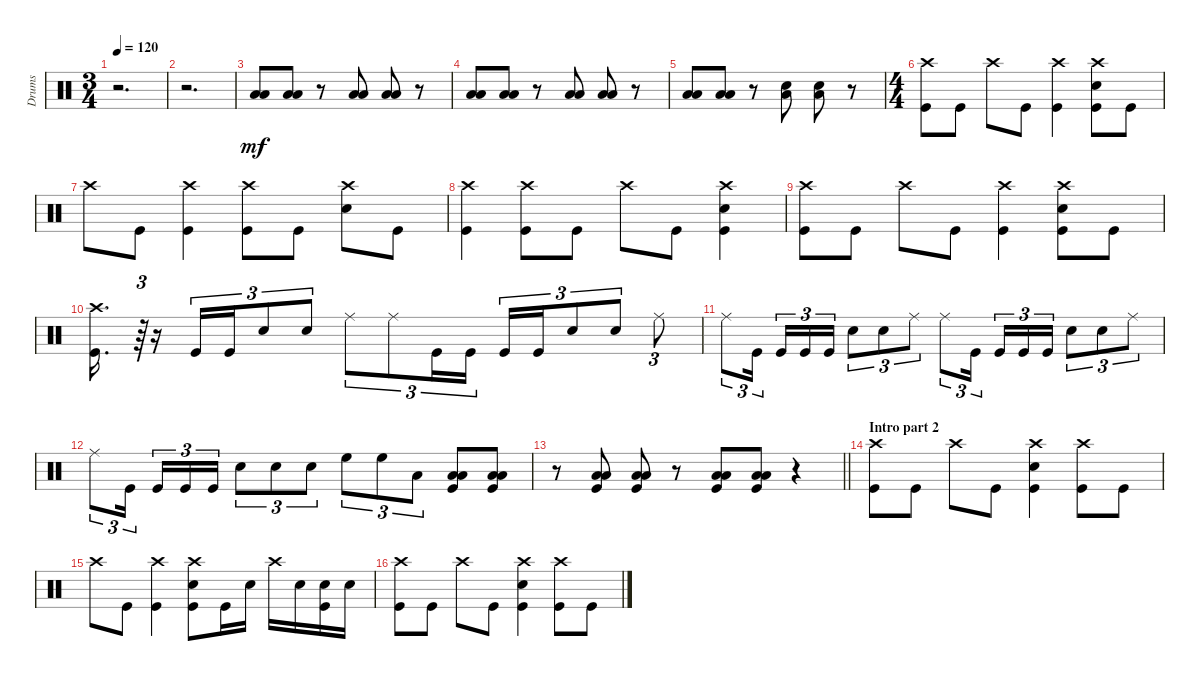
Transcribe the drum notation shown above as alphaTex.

\track ("Drums" "Drums") {instrument percussion}
\staff {score}
\articulation defaults
\ts (3 4)
\tempo 120
\clef neutral
\ks c
r.2{d dy mf} |
r.2{d} |
("Low Tom (hit)" "Low Floor Tom (hit)").8 ("Low Tom (hit)" "Low Floor Tom (hit)").8 r.8 ("Low Tom (hit)" "Low Floor Tom (hit)").8 ("Low Tom (hit)" "Low Floor Tom (hit)").8 r.8 |
("Low Tom (hit)" "Low Floor Tom (hit)").8 ("Low Tom (hit)" "Low Floor Tom (hit)").8 r.8 ("Low Tom (hit)" "Low Floor Tom (hit)").8 ("Low Tom (hit)" "Low Floor Tom (hit)").8 r.8 |
("Low Tom (hit)" "Low Floor Tom (hit)").8 ("Low Tom (hit)" "Low Floor Tom (hit)").8 r.8 ("Low Floor Tom (hit)" "Snare (hit) 2").8 ("Low Floor Tom (hit)" "Snare (hit) 2").8 r.8 |
\ts (4 4)
("Kick (hit)" "Crash high (hit)").8 "Kick (hit)".8 "Crash high (hit)".8 "Kick (hit)".8 ("Crash high (hit)" "Kick (hit)").4 ("Kick (hit)" "Snare (hit) 2" "Crash high (hit)").8 "Kick (hit)".8 |
"Crash high (hit)".8 "Kick (hit)".8 ("Crash high (hit)" "Kick (hit)").4 ("Crash high (hit)" "Kick (hit)").8 "Kick (hit)".8 ("Snare (hit) 2" "Crash high (hit)").8 "Kick (hit)".8 |
("Crash high (hit)" "Kick (hit)").4 ("Crash high (hit)" "Kick (hit)").8 "Kick (hit)".8 "Crash high (hit)".8 "Kick (hit)".8 ("Snare (hit) 2" "Crash high (hit)" "Kick (hit)").4 |
("Crash high (hit)" "Kick (hit)").8 "Kick (hit)".8 "Crash high (hit)".8 "Kick (hit)".8 ("Crash high (hit)" "Kick (hit)").4 ("Snare (hit) 2" "Crash high (hit)" "Kick (hit)").8 "Kick (hit)".8 |
("Crash high (hit)" "Kick (hit)").16{d} r.64{tu (3 2)} r.16 "Kick (hit)".16{tu (3 2)} "Kick (hit)".16{tu (3 2)} "Snare (hit) 2".8{tu (3 2)} "Snare (hit) 2".8{tu (3 2)} "Ride (middle)".8{tu (3 2)} "Ride (middle)".8{tu (3 2)} "Kick (hit)".16{tu (3 2)} "Kick (hit)".16{tu (3 2) beam splitsecondary} "Kick (hit)".16{tu (3 2)} "Kick (hit)".16{tu (3 2)} "Snare (hit) 2".8{tu (3 2)} "Snare (hit) 2".8{tu (3 2)} "Ride (middle)".8{tu (3 2)} |
"Ride (middle)".8{tu (3 2)} "Kick (hit)".16{tu (3 2) beam splitsecondary} "Kick (hit)".16{tu (3 2)} "Kick (hit)".16{tu (3 2)} "Kick (hit)".16{tu (3 2)} "Snare (hit) 2".8{tu (3 2)} "Snare (hit) 2".8{tu (3 2)} "Ride (middle)".8{tu (3 2)} "Ride (middle)".8{tu (3 2)} "Kick (hit)".16{tu (3 2) beam splitsecondary} "Kick (hit)".16{tu (3 2)} "Kick (hit)".16{tu (3 2)} "Kick (hit)".16{tu (3 2)} "Snare (hit) 2".8{tu (3 2)} "Snare (hit) 2".8{tu (3 2)} "Ride (middle)".8{tu (3 2)} |
"Ride (middle)".8{tu (3 2)} "Kick (hit)".16{tu (3 2) beam splitsecondary} "Kick (hit)".16{tu (3 2)} "Kick (hit)".16{tu (3 2)} "Kick (hit)".16{tu (3 2)} "Snare (hit) 2".8{tu (3 2)} "Snare (hit) 2".8{tu (3 2)} "Snare (hit) 2".8{tu (3 2)} "High Floor Tom (hit)".8{tu (3 2)} "High Floor Tom (hit)".8{tu (3 2)} "Low Tom (hit)".8{tu (3 2)} ("Kick (hit)" "Low Floor Tom (hit)" "Low Tom (hit)").8 ("Kick (hit)" "Low Floor Tom (hit)" "Low Tom (hit)").8 |
\barLineRight lightlight
r.8 ("Low Floor Tom (hit)" "Low Tom (hit)" "Kick (hit)").8 ("Low Floor Tom (hit)" "Low Tom (hit)" "Kick (hit)").8 r.8 ("Low Floor Tom (hit)" "Low Tom (hit)" "Kick (hit)").8 ("Low Floor Tom (hit)" "Low Tom (hit)" "Kick (hit)").8 r.4 |
\section ("" "Intro part 2")
("Crash high (hit)" "Kick (hit)").8 "Kick (hit)".8 "Crash high (hit)".8 "Kick (hit)".8 ("Snare (hit) 2" "Crash high (hit)" "Kick (hit)").4 ("Crash high (hit)" "Kick (hit)").8 "Kick (hit)".8 |
"Crash high (hit)".8 "Kick (hit)".8 ("Crash high (hit)" "Kick (hit)").4 ("Snare (hit) 2" "Crash high (hit)" "Kick (hit)").8 "Kick (hit)".16 "Snare (hit) 2".16 "Crash high (hit)".16 "Snare (hit) 2".16 ("Kick (hit)" "Snare (hit) 2").16 "Snare (hit) 2".16 |
("Kick (hit)" "Crash high (hit)").8 "Kick (hit)".8 "Crash high (hit)".8 "Kick (hit)".8 ("Kick (hit)" "Snare (hit) 2" "Crash high (hit)").4 ("Kick (hit)" "Crash high (hit)").8 "Kick (hit)".8
